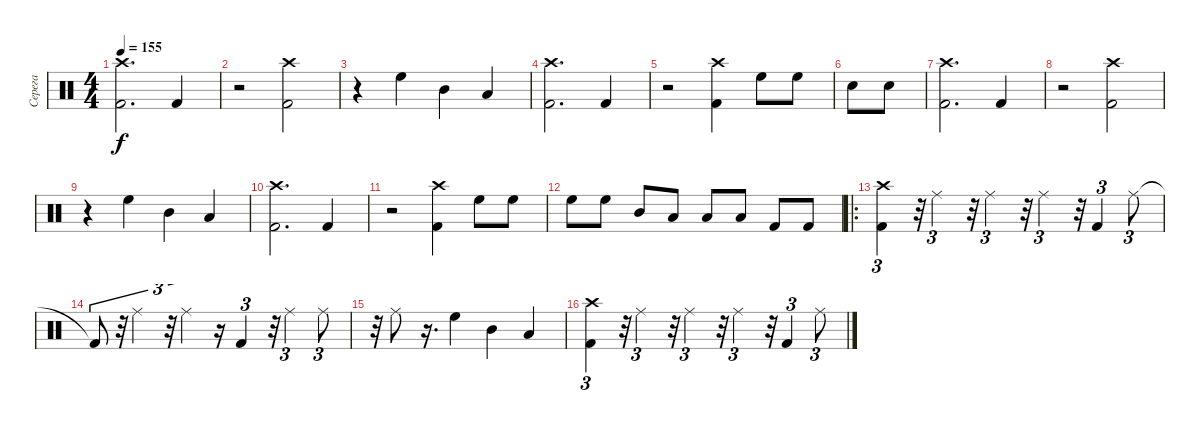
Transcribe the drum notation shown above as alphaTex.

\track ("Серега" "Серега") {instrument percussion}
\staff {score}
\articulation defaults
\ts (4 4)
\tempo 155
\clef neutral
\ks c
("Crash high (hit)" "Kick (hit) 2").2{d dy f} "Kick (hit) 2".4 |
r.2 ("Crash high (hit)" "Kick (hit) 2").2 |
r.4 "High Floor Tom (hit)".4 "Mid Tom (hit)".4 "Low Tom (hit)".4 |
("Crash high (hit)" "Kick (hit) 2").2{d} "Kick (hit) 2".4 |
r.2 ("Crash high (hit)" "Kick (hit) 2").4 "High Floor Tom (hit)".8 "High Floor Tom (hit)".8 |
"Snare (hit) 2".8 "Snare (hit) 2".8 |
("Crash high (hit)" "Kick (hit) 2").2{d} "Kick (hit) 2".4 |
r.2 ("Crash high (hit)" "Kick (hit) 2").2 |
r.4 "High Floor Tom (hit)".4 "Mid Tom (hit)".4 "Low Tom (hit)".4 |
("Crash high (hit)" "Kick (hit) 2").2{d} "Kick (hit) 2".4 |
r.2 ("Crash high (hit)" "Kick (hit) 2").4 "High Floor Tom (hit)".8 "High Floor Tom (hit)".8 |
"High Floor Tom (hit)".8 "High Floor Tom (hit)".8 "Mid Tom (hit)".8 "Low Tom (hit)".8 "Low Tom (hit)".8 "Low Floor Tom (hit)".8 "Kick (hit) 2".8 "Kick (hit) 2".8 |
\ro
("Crash high (hit)" "Kick (hit) 2").4{tu (3 2)} r.32{tu (3 2)} "Ride (middle)".4{tu (3 2)} r.32{tu (3 2)} "Ride (middle)".4{tu (3 2)} r.32{tu (3 2)} "Ride (middle)".4{tu (3 2)} r.32{tu (3 2)} "Kick (hit) 2".4{tu (3 2)} "Ride (middle)".8{tu (3 2)} |
"Kick (hit) 2"{t}.8{tu (3 2)} r.32{tu (3 2)} "Ride (middle)".4{tu (3 2)} r.32{tu (3 2)} "Ride (middle)".4{tu (3 2)} r.16{tu (3 2)} "Kick (hit) 2".4{tu (3 2)} r.32{tu (3 2)} "Ride (middle)".4{tu (3 2)} "Ride (middle)".8{tu (3 2)} |
r.32 "Ride (middle)".8 r.16{d} "High Floor Tom (hit)".4 "Mid Tom (hit)".4 "Low Tom (hit)".4 |
("Crash high (hit)" "Kick (hit) 2").4{tu (3 2)} r.32{tu (3 2)} "Ride (middle)".4{tu (3 2)} r.32{tu (3 2)} "Ride (middle)".4{tu (3 2)} r.32{tu (3 2)} "Ride (middle)".4{tu (3 2)} r.32{tu (3 2)} "Kick (hit) 2".4{tu (3 2)} "Ride (middle)".8{tu (3 2)}
